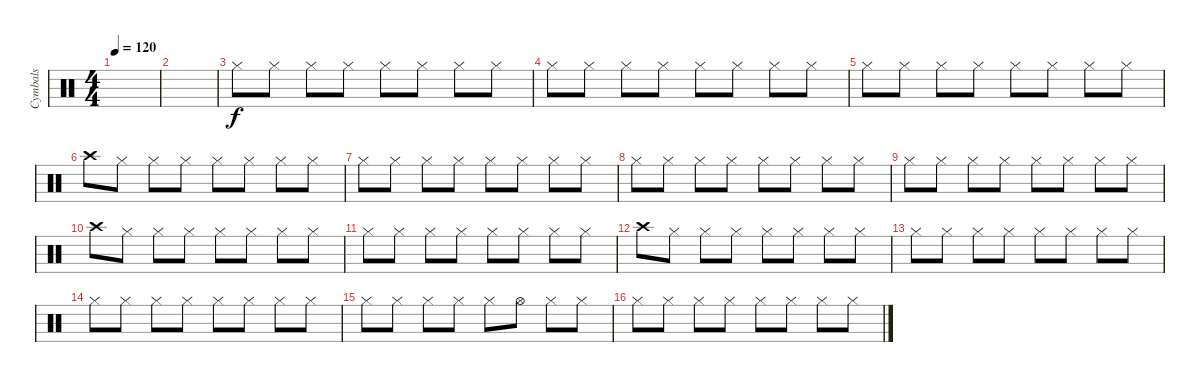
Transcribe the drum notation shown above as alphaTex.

\track ("Cymbals" "Cymbals") {instrument percussion}
\staff {score}
\articulation defaults
\ts (4 4)
\tempo 120
\clef neutral
\ks c
|
|
"Hi-Hat (closed)".8 "Hi-Hat (closed)".8 "Hi-Hat (closed)".8 "Hi-Hat (closed)".8 "Hi-Hat (closed)".8 "Hi-Hat (closed)".8 "Hi-Hat (closed)".8 "Hi-Hat (closed)".8 |
"Hi-Hat (closed)".8 "Hi-Hat (closed)".8 "Hi-Hat (closed)".8 "Hi-Hat (closed)".8 "Hi-Hat (closed)".8 "Hi-Hat (closed)".8 "Hi-Hat (closed)".8 "Hi-Hat (closed)".8 |
"Hi-Hat (closed)".8 "Hi-Hat (closed)".8 "Hi-Hat (closed)".8 "Hi-Hat (closed)".8 "Hi-Hat (closed)".8 "Hi-Hat (closed)".8 "Hi-Hat (closed)".8 "Hi-Hat (closed)".8 |
"Crash high (hit)".8 "Hi-Hat (closed)".8 "Hi-Hat (closed)".8 "Hi-Hat (closed)".8 "Hi-Hat (closed)".8 "Hi-Hat (closed)".8 "Hi-Hat (closed)".8 "Hi-Hat (closed)".8 |
"Hi-Hat (closed)".8 "Hi-Hat (closed)".8 "Hi-Hat (closed)".8 "Hi-Hat (closed)".8 "Hi-Hat (closed)".8 "Hi-Hat (closed)".8 "Hi-Hat (closed)".8 "Hi-Hat (closed)".8 |
"Hi-Hat (closed)".8 "Hi-Hat (closed)".8 "Hi-Hat (closed)".8 "Hi-Hat (closed)".8 "Hi-Hat (closed)".8 "Hi-Hat (closed)".8 "Hi-Hat (closed)".8 "Hi-Hat (closed)".8 |
"Hi-Hat (closed)".8 "Hi-Hat (closed)".8 "Hi-Hat (closed)".8 "Hi-Hat (closed)".8 "Hi-Hat (closed)".8 "Hi-Hat (closed)".8 "Hi-Hat (closed)".8 "Hi-Hat (closed)".8 |
"Crash high (hit)".8 "Hi-Hat (closed)".8 "Hi-Hat (closed)".8 "Hi-Hat (closed)".8 "Hi-Hat (closed)".8 "Hi-Hat (closed)".8 "Hi-Hat (closed)".8 "Hi-Hat (closed)".8 |
"Hi-Hat (closed)".8 "Hi-Hat (closed)".8 "Hi-Hat (closed)".8 "Hi-Hat (closed)".8 "Hi-Hat (closed)".8 "Hi-Hat (closed)".8 "Hi-Hat (closed)".8 "Hi-Hat (closed)".8 |
"Crash high (hit)".8 "Hi-Hat (closed)".8 "Hi-Hat (closed)".8 "Hi-Hat (closed)".8 "Hi-Hat (closed)".8 "Hi-Hat (closed)".8 "Hi-Hat (closed)".8 "Hi-Hat (closed)".8 |
"Hi-Hat (closed)".8 "Hi-Hat (closed)".8 "Hi-Hat (closed)".8 "Hi-Hat (closed)".8 "Hi-Hat (closed)".8 "Hi-Hat (closed)".8 "Hi-Hat (closed)".8 "Hi-Hat (closed)".8 |
"Hi-Hat (closed)".8 "Hi-Hat (closed)".8 "Hi-Hat (closed)".8 "Hi-Hat (closed)".8 "Hi-Hat (closed)".8 "Hi-Hat (closed)".8 "Hi-Hat (closed)".8 "Hi-Hat (closed)".8 |
"Hi-Hat (closed)".8 "Hi-Hat (closed)".8 "Hi-Hat (closed)".8 "Hi-Hat (closed)".8 "Hi-Hat (closed)".8 "Hi-Hat (open)".8 "Hi-Hat (closed)".8 "Hi-Hat (closed)".8 |
"Hi-Hat (closed)".8 "Hi-Hat (closed)".8 "Hi-Hat (closed)".8 "Hi-Hat (closed)".8 "Hi-Hat (closed)".8 "Hi-Hat (closed)".8 "Hi-Hat (closed)".8 "Hi-Hat (closed)".8
